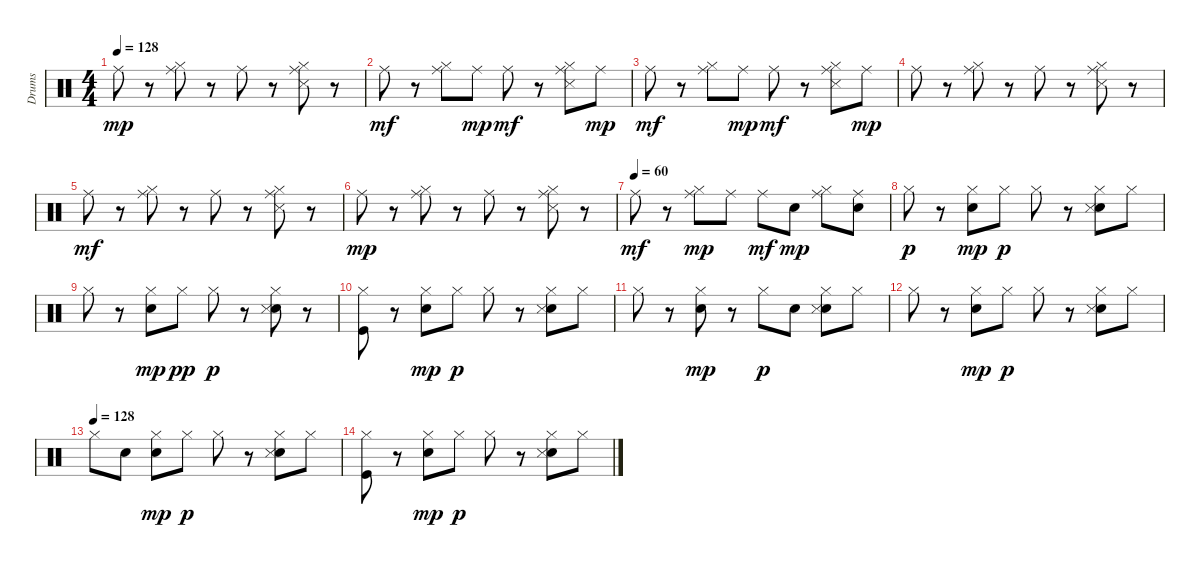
\track ("Drums" "Drums") {instrument percussion}
\staff {score}
\articulation defaults
\ts (4 4)
\tempo 128
\clef neutral
\ks c "Ride (middle)".8{dy mp}
r.8 ("Hi-Hat (closed)" "Ride (middle)").8 r.8 "Ride (middle)".8 r.8 ("Hi-Hat (closed)" "Snare (side stick) 3" "Ride (middle)").8 r.8 |
"Ride (middle)".8{dy mf} r.8 ("Hi-Hat (closed)" "Ride (middle)").8 "Ride (middle)".8{dy mp} "Ride (middle)".8{dy mf} r.8 ("Hi-Hat (closed)" "Snare (side stick) 3" "Ride (middle)").8 "Ride (middle)".8{dy mp} |
"Ride (middle)".8{dy mf} r.8 ("Hi-Hat (closed)" "Ride (middle)").8 "Ride (middle)".8{dy mp} "Ride (middle)".8{dy mf} r.8 ("Hi-Hat (closed)" "Snare (side stick) 3" "Ride (middle)").8 "Ride (middle)".8{dy mp} |
"Ride (middle)".8 r.8 ("Hi-Hat (closed)" "Ride (middle)").8 r.8 "Ride (middle)".8 r.8 ("Hi-Hat (closed)" "Snare (side stick) 3" "Ride (middle)").8 r.8 |
"Ride (middle)".8{dy mf} r.8 ("Hi-Hat (closed)" "Ride (middle)").8 r.8 "Ride (middle)".8 r.8 ("Hi-Hat (closed)" "Snare (side stick) 3" "Ride (middle)").8 r.8 |
"Ride (middle)".8{dy mp} r.8 ("Hi-Hat (closed)" "Ride (middle)").8 r.8 "Ride (middle)".8 r.8 ("Hi-Hat (closed)" "Snare (side stick) 3" "Ride (middle)").8 r.8 |
\tempo (60)
"Ride (middle)".8{dy mf} r.8 ("Hi-Hat (closed)" "Ride (middle)").8{dy mp} "Ride (middle)".8 "Ride (middle)".8{dy mf} "Snare (hit) 2".8{dy mp} ("Hi-Hat (closed)" "Ride (middle)").8 ("Snare (hit) 2" "Ride (middle)").8 |
"Hi-Hat (closed)".8{dy p} r.8 ("Snare (hit) 2" "Hi-Hat (closed)").8{dy mp} "Hi-Hat (closed)".8{dy p} "Hi-Hat (closed)".8 r.8 ("Snare (hit) 2" "Hi-Hat (closed)" "Snare (side stick) 3").8 "Hi-Hat (closed)".8 |
"Hi-Hat (closed)".8 r.8 ("Snare (hit) 2" "Hi-Hat (closed)").8{dy mp} "Hi-Hat (closed)".8{dy pp} "Hi-Hat (closed)".8{dy p} r.8 ("Snare (hit) 2" "Hi-Hat (closed)" "Snare (side stick) 3").8 r.8 |
("Kick (hit)" "Hi-Hat (closed)").8 r.8 ("Snare (hit) 2" "Hi-Hat (closed)").8{dy mp} "Hi-Hat (closed)".8{dy p} "Hi-Hat (closed)".8 r.8 ("Snare (hit) 2" "Hi-Hat (closed)" "Snare (side stick) 3").8 "Hi-Hat (closed)".8 |
"Hi-Hat (closed)".8 r.8 ("Snare (hit) 2" "Hi-Hat (closed)").8{dy mp} r.8 "Hi-Hat (closed)".8{dy p} "Snare (hit) 2".8 ("Snare (hit) 2" "Hi-Hat (closed)" "Snare (side stick) 3").8 "Hi-Hat (closed)".8 |
"Hi-Hat (closed)".8 r.8 ("Snare (hit) 2" "Hi-Hat (closed)").8{dy mp} "Hi-Hat (closed)".8{dy p} "Hi-Hat (closed)".8 r.8 ("Snare (hit) 2" "Hi-Hat (closed)" "Snare (side stick) 3").8 "Hi-Hat (closed)".8 |
\tempo (128)
"Hi-Hat (closed)".8 "Snare (hit) 2".8 ("Snare (hit) 2" "Hi-Hat (closed)").8{dy mp} "Hi-Hat (closed)".8{dy p} "Hi-Hat (closed)".8 r.8 ("Snare (hit) 2" "Hi-Hat (closed)" "Snare (side stick) 3").8 "Hi-Hat (closed)".8 |
("Kick (hit)" "Hi-Hat (closed)").8 r.8 ("Snare (hit) 2" "Hi-Hat (closed)").8{dy mp} "Hi-Hat (closed)".8{dy p} "Hi-Hat (closed)".8 r.8 ("Snare (hit) 2" "Hi-Hat (closed)" "Snare (side stick) 3").8 "Hi-Hat (closed)".8
